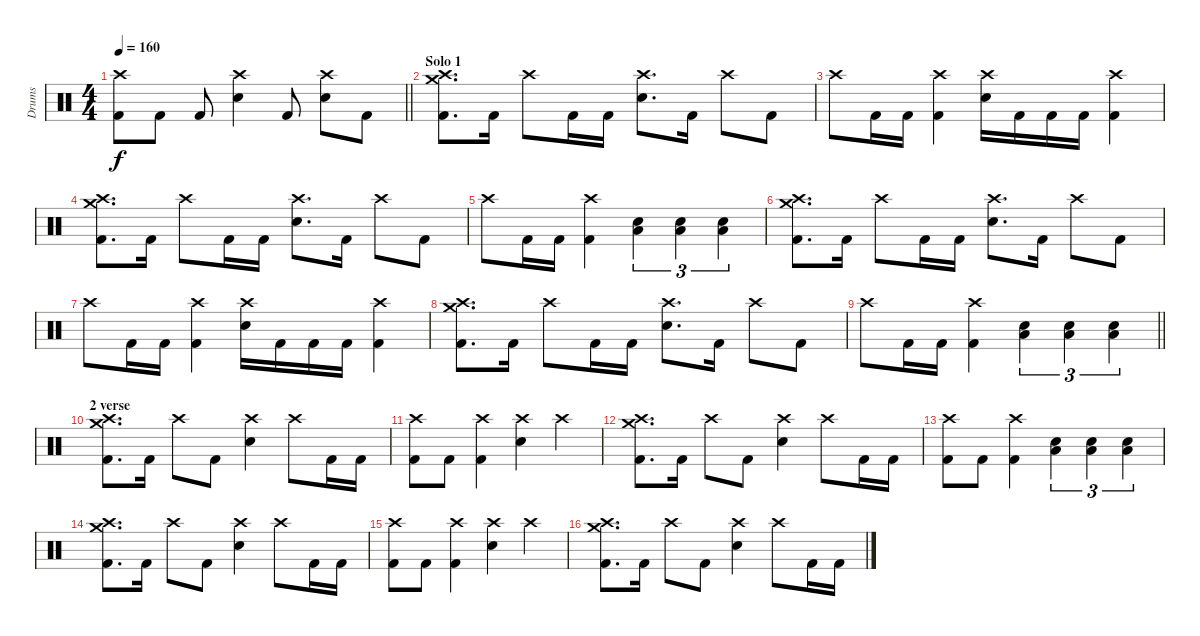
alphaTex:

\track ("Drums" "Drums") {instrument percussion}
\staff {score}
\articulation defaults
\ts (4 4)
\tempo 160
\clef neutral
\barLineRight lightlight
\ks c
("Crash high (hit)" "Kick (hit) 2").8{dy f} "Kick (hit) 2".8 "Kick (hit) 2".8 ("Crash high (hit)" "Electric Snare (hit)").4 "Kick (hit) 2".8 ("Crash high (hit)" "Electric Snare (hit)").8 "Kick (hit) 2".8 |
\section ("" "Solo 1")
("Crash high (hit)" "Crash medium (hit)" "Kick (hit) 2").8{d} "Kick (hit) 2".16 "Crash high (hit)".8 "Kick (hit) 2".16 "Kick (hit) 2".16 ("Crash high (hit)" "Electric Snare (hit)").8{d} "Kick (hit) 2".16 "Crash high (hit)".8 "Kick (hit) 2".8 |
"Crash high (hit)".8 "Kick (hit) 2".16 "Kick (hit) 2".16 ("Crash high (hit)" "Kick (hit) 2").4 ("Crash high (hit)" "Electric Snare (hit)").16 "Kick (hit) 2".16 "Kick (hit) 2".16 "Kick (hit) 2".16 ("Crash high (hit)" "Kick (hit) 2").4 |
("Crash high (hit)" "Crash medium (hit)" "Kick (hit) 2").8{d} "Kick (hit) 2".16 "Crash high (hit)".8 "Kick (hit) 2".16 "Kick (hit) 2".16 ("Crash high (hit)" "Electric Snare (hit)").8{d} "Kick (hit) 2".16 "Crash high (hit)".8 "Kick (hit) 2".8 |
"Crash high (hit)".8 "Kick (hit) 2".16 "Kick (hit) 2".16 ("Crash high (hit)" "Kick (hit) 2").4 ("Low Floor Tom (hit)" "Electric Snare (hit)").4{tu (3 2)} ("Low Floor Tom (hit)" "Electric Snare (hit)").4{tu (3 2)} ("Low Floor Tom (hit)" "Electric Snare (hit)").4{tu (3 2)} |
("Crash high (hit)" "Crash medium (hit)" "Kick (hit) 2").8{d} "Kick (hit) 2".16 "Crash high (hit)".8 "Kick (hit) 2".16 "Kick (hit) 2".16 ("Crash high (hit)" "Electric Snare (hit)").8{d} "Kick (hit) 2".16 "Crash high (hit)".8 "Kick (hit) 2".8 |
"Crash high (hit)".8 "Kick (hit) 2".16 "Kick (hit) 2".16 ("Crash high (hit)" "Kick (hit) 2").4 ("Crash high (hit)" "Electric Snare (hit)").16 "Kick (hit) 2".16 "Kick (hit) 2".16 "Kick (hit) 2".16 ("Crash high (hit)" "Kick (hit) 2").4 |
("Crash high (hit)" "Crash medium (hit)" "Kick (hit) 2").8{d} "Kick (hit) 2".16 "Crash high (hit)".8 "Kick (hit) 2".16 "Kick (hit) 2".16 ("Crash high (hit)" "Electric Snare (hit)").8{d} "Kick (hit) 2".16 "Crash high (hit)".8 "Kick (hit) 2".8 |
\barLineRight lightlight "Crash high (hit)".8 "Kick (hit) 2".16 "Kick (hit) 2".16
("Crash high (hit)" "Kick (hit) 2").4 ("Low Floor Tom (hit)" "Electric Snare (hit)").4{tu (3 2)} ("Low Floor Tom (hit)" "Electric Snare (hit)").4{tu (3 2)} ("Low Floor Tom (hit)" "Electric Snare (hit)").4{tu (3 2)} |
\section ("" "2 verse")
("Crash high (hit)" "Crash medium (hit)" "Kick (hit) 2").8{d} "Kick (hit) 2".16 "Crash high (hit)".8 "Kick (hit) 2".8 ("Crash high (hit)" "Electric Snare (hit)").4 "Crash high (hit)".8 "Kick (hit) 2".16 "Kick (hit) 2".16 |
("Crash high (hit)" "Kick (hit) 2").8 "Kick (hit) 2".8 ("Crash high (hit)" "Kick (hit) 2").4 ("Crash high (hit)" "Electric Snare (hit)").4 "Crash high (hit)".4 |
("Crash high (hit)" "Crash medium (hit)" "Kick (hit) 2").8{d} "Kick (hit) 2".16 "Crash high (hit)".8 "Kick (hit) 2".8 ("Crash high (hit)" "Electric Snare (hit)").4 "Crash high (hit)".8 "Kick (hit) 2".16 "Kick (hit) 2".16 |
("Crash high (hit)" "Kick (hit) 2").8 "Kick (hit) 2".8 ("Crash high (hit)" "Kick (hit) 2").4 ("Low Floor Tom (hit)" "Electric Snare (hit)").4{tu (3 2)} ("Low Floor Tom (hit)" "Electric Snare (hit)").4{tu (3 2)} ("Low Floor Tom (hit)" "Electric Snare (hit)").4{tu (3 2)} |
("Crash high (hit)" "Crash medium (hit)" "Kick (hit) 2").8{d} "Kick (hit) 2".16 "Crash high (hit)".8 "Kick (hit) 2".8 ("Crash high (hit)" "Electric Snare (hit)").4 "Crash high (hit)".8 "Kick (hit) 2".16 "Kick (hit) 2".16 |
("Crash high (hit)" "Kick (hit) 2").8 "Kick (hit) 2".8 ("Crash high (hit)" "Kick (hit) 2").4 ("Crash high (hit)" "Electric Snare (hit)").4 "Crash high (hit)".4 |
("Crash high (hit)" "Crash medium (hit)" "Kick (hit) 2").8{d} "Kick (hit) 2".16 "Crash high (hit)".8 "Kick (hit) 2".8 ("Crash high (hit)" "Electric Snare (hit)").4 "Crash high (hit)".8 "Kick (hit) 2".16 "Kick (hit) 2".16
